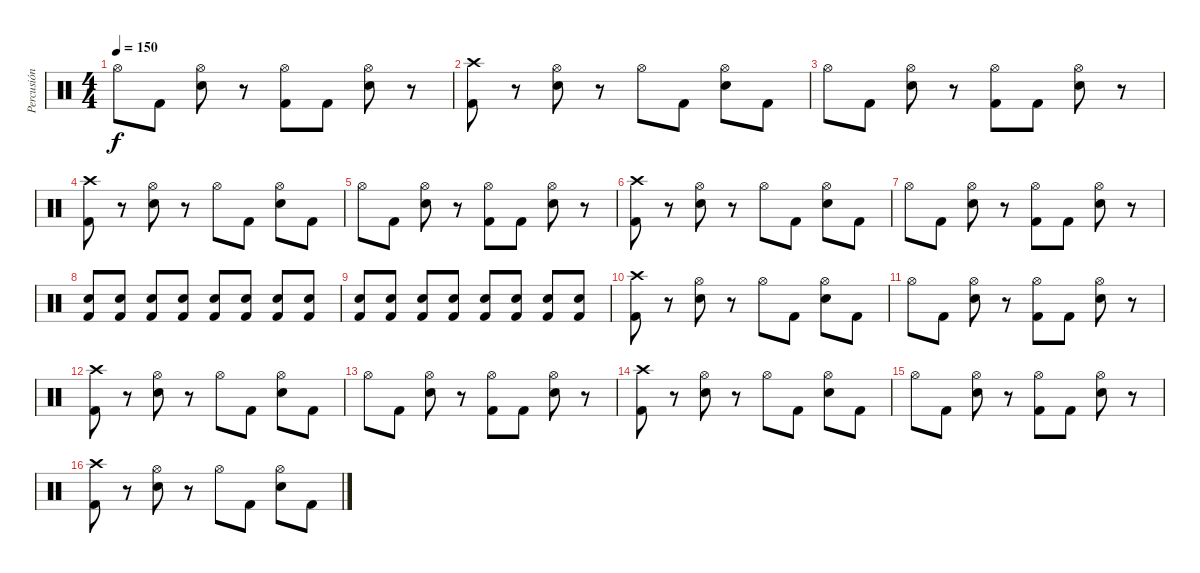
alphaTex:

\track ("Percusión" "Percusión") {instrument percussion}
\staff {score}
\articulation defaults
\ts (4 4)
\tempo 150
\clef neutral
\ks c "Hi-Hat (open)".8{dy f} "Kick (hit) 2".8
("Hi-Hat (open)" "Electric Snare (hit)").8 r.8 ("Hi-Hat (open)" "Kick (hit) 2").8 "Kick (hit) 2".8 ("Hi-Hat (open)" "Electric Snare (hit)").8 r.8 |
("Crash high (hit)" "Kick (hit) 2").8 r.8 ("Hi-Hat (open)" "Electric Snare (hit)").8 r.8 "Hi-Hat (open)".8 "Kick (hit) 2".8 ("Hi-Hat (open)" "Electric Snare (hit)").8 "Kick (hit) 2".8 |
"Hi-Hat (open)".8 "Kick (hit) 2".8 ("Hi-Hat (open)" "Electric Snare (hit)").8 r.8 ("Hi-Hat (open)" "Kick (hit) 2").8 "Kick (hit) 2".8 ("Hi-Hat (open)" "Electric Snare (hit)").8 r.8 |
("Crash high (hit)" "Kick (hit) 2").8 r.8 ("Hi-Hat (open)" "Electric Snare (hit)").8 r.8 "Hi-Hat (open)".8 "Kick (hit) 2".8 ("Hi-Hat (open)" "Electric Snare (hit)").8 "Kick (hit) 2".8 |
"Hi-Hat (open)".8 "Kick (hit) 2".8 ("Hi-Hat (open)" "Electric Snare (hit)").8 r.8 ("Hi-Hat (open)" "Kick (hit) 2").8 "Kick (hit) 2".8 ("Hi-Hat (open)" "Electric Snare (hit)").8 r.8 |
("Crash high (hit)" "Kick (hit) 2").8 r.8 ("Hi-Hat (open)" "Electric Snare (hit)").8 r.8 "Hi-Hat (open)".8 "Kick (hit) 2".8 ("Hi-Hat (open)" "Electric Snare (hit)").8 "Kick (hit) 2".8 |
"Hi-Hat (open)".8 "Kick (hit) 2".8 ("Hi-Hat (open)" "Electric Snare (hit)").8 r.8 ("Hi-Hat (open)" "Kick (hit) 2").8 "Kick (hit) 2".8 ("Hi-Hat (open)" "Electric Snare (hit)").8 r.8 |
("Kick (hit) 2" "Electric Snare (hit)").8 ("Kick (hit) 2" "Electric Snare (hit)").8 ("Kick (hit) 2" "Electric Snare (hit)").8 ("Kick (hit) 2" "Electric Snare (hit)").8 ("Kick (hit) 2" "Electric Snare (hit)").8 ("Kick (hit) 2" "Electric Snare (hit)").8 ("Kick (hit) 2" "Electric Snare (hit)").8 ("Kick (hit) 2" "Electric Snare (hit)").8 |
("Kick (hit) 2" "Electric Snare (hit)").8 ("Kick (hit) 2" "Electric Snare (hit)").8 ("Kick (hit) 2" "Electric Snare (hit)").8 ("Kick (hit) 2" "Electric Snare (hit)").8 ("Kick (hit) 2" "Electric Snare (hit)").8 ("Kick (hit) 2" "Electric Snare (hit)").8 ("Kick (hit) 2" "Electric Snare (hit)").8 ("Kick (hit) 2" "Electric Snare (hit)").8 |
("Crash high (hit)" "Kick (hit) 2").8 r.8 ("Hi-Hat (open)" "Electric Snare (hit)").8 r.8 "Hi-Hat (open)".8 "Kick (hit) 2".8 ("Hi-Hat (open)" "Electric Snare (hit)").8 "Kick (hit) 2".8 |
"Hi-Hat (open)".8 "Kick (hit) 2".8 ("Hi-Hat (open)" "Electric Snare (hit)").8 r.8 ("Hi-Hat (open)" "Kick (hit) 2").8 "Kick (hit) 2".8 ("Hi-Hat (open)" "Electric Snare (hit)").8 r.8 |
("Crash high (hit)" "Kick (hit) 2").8 r.8 ("Hi-Hat (open)" "Electric Snare (hit)").8 r.8 "Hi-Hat (open)".8 "Kick (hit) 2".8 ("Hi-Hat (open)" "Electric Snare (hit)").8 "Kick (hit) 2".8 |
"Hi-Hat (open)".8 "Kick (hit) 2".8 ("Hi-Hat (open)" "Electric Snare (hit)").8 r.8 ("Hi-Hat (open)" "Kick (hit) 2").8 "Kick (hit) 2".8 ("Hi-Hat (open)" "Electric Snare (hit)").8 r.8 |
("Crash high (hit)" "Kick (hit) 2").8 r.8 ("Hi-Hat (open)" "Electric Snare (hit)").8 r.8 "Hi-Hat (open)".8 "Kick (hit) 2".8 ("Hi-Hat (open)" "Electric Snare (hit)").8 "Kick (hit) 2".8 |
"Hi-Hat (open)".8 "Kick (hit) 2".8 ("Hi-Hat (open)" "Electric Snare (hit)").8 r.8 ("Hi-Hat (open)" "Kick (hit) 2").8 "Kick (hit) 2".8 ("Hi-Hat (open)" "Electric Snare (hit)").8 r.8 |
("Crash high (hit)" "Kick (hit) 2").8 r.8 ("Hi-Hat (open)" "Electric Snare (hit)").8 r.8 "Hi-Hat (open)".8 "Kick (hit) 2".8 ("Hi-Hat (open)" "Electric Snare (hit)").8 "Kick (hit) 2".8
